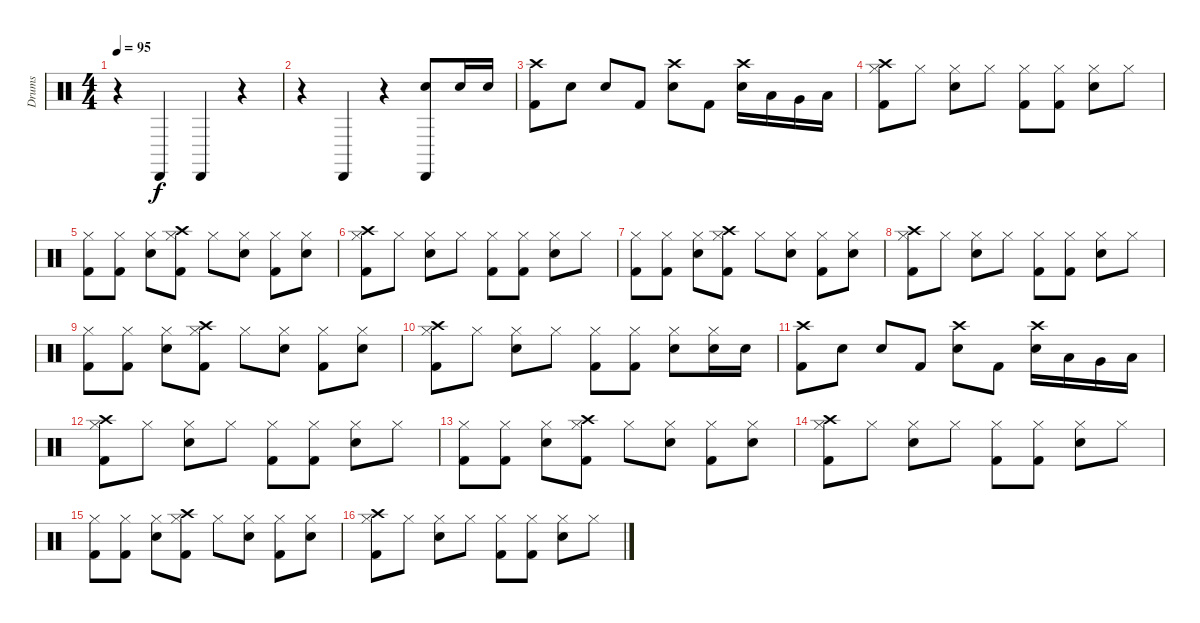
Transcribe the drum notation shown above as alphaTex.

\track ("Drums" "Drums") {instrument percussion}
\staff {score}
\articulation defaults
\ts (4 4)
\tempo 95
\clef neutral
\ks c
r.4{dy f} "Cabasa (hit)".4 "Cabasa (hit)".4 r.4 |
r.4 "Cabasa (hit)".4 r.4 ("Cabasa (hit)" "Electric Snare (hit)").8 "Electric Snare (hit)".16 "Electric Snare (hit)".16 |
("Crash high (hit)" "Kick (hit) 2").8 "Electric Snare (hit)".8 "Electric Snare (hit)".8 "Kick (hit) 2".8 ("Crash high (hit)" "Electric Snare (hit)").8 "Kick (hit) 2".8 ("Crash high (hit)" "Electric Snare (hit)").16 "Low Tom (hit)".16 "Very Low Tom (hit)".16 "Low Floor Tom (hit)".16 |
("Crash high (hit)" "Hi-Hat (closed)" "Kick (hit) 2").8 "Hi-Hat (closed)".8 ("Hi-Hat (closed)" "Electric Snare (hit)").8 "Hi-Hat (closed)".8 ("Hi-Hat (closed)" "Kick (hit) 2").8 ("Hi-Hat (closed)" "Kick (hit) 2").8 ("Hi-Hat (closed)" "Electric Snare (hit)").8 "Hi-Hat (closed)".8 |
("Hi-Hat (closed)" "Kick (hit) 2").8 ("Hi-Hat (closed)" "Kick (hit) 2").8 ("Hi-Hat (closed)" "Electric Snare (hit)").8 ("Crash high (hit)" "Hi-Hat (closed)" "Kick (hit) 2").8 "Hi-Hat (closed)".8 ("Hi-Hat (closed)" "Electric Snare (hit)").8 ("Hi-Hat (closed)" "Kick (hit) 2").8 ("Hi-Hat (closed)" "Electric Snare (hit)").8 |
("Crash high (hit)" "Hi-Hat (closed)" "Kick (hit) 2").8 "Hi-Hat (closed)".8 ("Hi-Hat (closed)" "Electric Snare (hit)").8 "Hi-Hat (closed)".8 ("Hi-Hat (closed)" "Kick (hit) 2").8 ("Hi-Hat (closed)" "Kick (hit) 2").8 ("Hi-Hat (closed)" "Electric Snare (hit)").8 "Hi-Hat (closed)".8 |
("Hi-Hat (closed)" "Kick (hit) 2").8 ("Hi-Hat (closed)" "Kick (hit) 2").8 ("Hi-Hat (closed)" "Electric Snare (hit)").8 ("Crash high (hit)" "Hi-Hat (closed)" "Kick (hit) 2").8 "Hi-Hat (closed)".8 ("Hi-Hat (closed)" "Electric Snare (hit)").8 ("Hi-Hat (closed)" "Kick (hit) 2").8 ("Hi-Hat (closed)" "Electric Snare (hit)").8 |
("Crash high (hit)" "Hi-Hat (closed)" "Kick (hit) 2").8 "Hi-Hat (closed)".8 ("Hi-Hat (closed)" "Electric Snare (hit)").8 "Hi-Hat (closed)".8 ("Hi-Hat (closed)" "Kick (hit) 2").8 ("Hi-Hat (closed)" "Kick (hit) 2").8 ("Hi-Hat (closed)" "Electric Snare (hit)").8 "Hi-Hat (closed)".8 |
("Hi-Hat (closed)" "Kick (hit) 2").8 ("Hi-Hat (closed)" "Kick (hit) 2").8 ("Hi-Hat (closed)" "Electric Snare (hit)").8 ("Crash high (hit)" "Hi-Hat (closed)" "Kick (hit) 2").8 "Hi-Hat (closed)".8 ("Hi-Hat (closed)" "Electric Snare (hit)").8 ("Hi-Hat (closed)" "Kick (hit) 2").8 ("Hi-Hat (closed)" "Electric Snare (hit)").8 |
("Crash high (hit)" "Hi-Hat (closed)" "Kick (hit) 2").8 "Hi-Hat (closed)".8 ("Hi-Hat (closed)" "Electric Snare (hit)").8 "Hi-Hat (closed)".8 ("Hi-Hat (closed)" "Kick (hit) 2").8 ("Hi-Hat (closed)" "Kick (hit) 2").8 ("Hi-Hat (closed)" "Electric Snare (hit)").8 ("Electric Snare (hit)" "Hi-Hat (closed)").16 "Electric Snare (hit)".16 |
("Crash high (hit)" "Kick (hit) 2").8 "Electric Snare (hit)".8 "Electric Snare (hit)".8 "Kick (hit) 2".8 ("Crash high (hit)" "Electric Snare (hit)").8 "Kick (hit) 2".8 ("Crash high (hit)" "Electric Snare (hit)").16 "Low Tom (hit)".16 "Very Low Tom (hit)".16 "Low Floor Tom (hit)".16 |
("Crash high (hit)" "Hi-Hat (closed)" "Kick (hit) 2").8 "Hi-Hat (closed)".8 ("Hi-Hat (closed)" "Electric Snare (hit)").8 "Hi-Hat (closed)".8 ("Hi-Hat (closed)" "Kick (hit) 2").8 ("Hi-Hat (closed)" "Kick (hit) 2").8 ("Hi-Hat (closed)" "Electric Snare (hit)").8 "Hi-Hat (closed)".8 |
("Hi-Hat (closed)" "Kick (hit) 2").8 ("Hi-Hat (closed)" "Kick (hit) 2").8 ("Hi-Hat (closed)" "Electric Snare (hit)").8 ("Crash high (hit)" "Hi-Hat (closed)" "Kick (hit) 2").8 "Hi-Hat (closed)".8 ("Hi-Hat (closed)" "Electric Snare (hit)").8 ("Hi-Hat (closed)" "Kick (hit) 2").8 ("Hi-Hat (closed)" "Electric Snare (hit)").8 |
("Crash high (hit)" "Hi-Hat (closed)" "Kick (hit) 2").8 "Hi-Hat (closed)".8 ("Hi-Hat (closed)" "Electric Snare (hit)").8 "Hi-Hat (closed)".8 ("Hi-Hat (closed)" "Kick (hit) 2").8 ("Hi-Hat (closed)" "Kick (hit) 2").8 ("Hi-Hat (closed)" "Electric Snare (hit)").8 "Hi-Hat (closed)".8 |
("Hi-Hat (closed)" "Kick (hit) 2").8 ("Hi-Hat (closed)" "Kick (hit) 2").8 ("Hi-Hat (closed)" "Electric Snare (hit)").8 ("Crash high (hit)" "Hi-Hat (closed)" "Kick (hit) 2").8 "Hi-Hat (closed)".8 ("Hi-Hat (closed)" "Electric Snare (hit)").8 ("Hi-Hat (closed)" "Kick (hit) 2").8 ("Hi-Hat (closed)" "Electric Snare (hit)").8 |
("Crash high (hit)" "Hi-Hat (closed)" "Kick (hit) 2").8 "Hi-Hat (closed)".8 ("Hi-Hat (closed)" "Electric Snare (hit)").8 "Hi-Hat (closed)".8 ("Hi-Hat (closed)" "Kick (hit) 2").8 ("Hi-Hat (closed)" "Kick (hit) 2").8 ("Hi-Hat (closed)" "Electric Snare (hit)").8 "Hi-Hat (closed)".8
